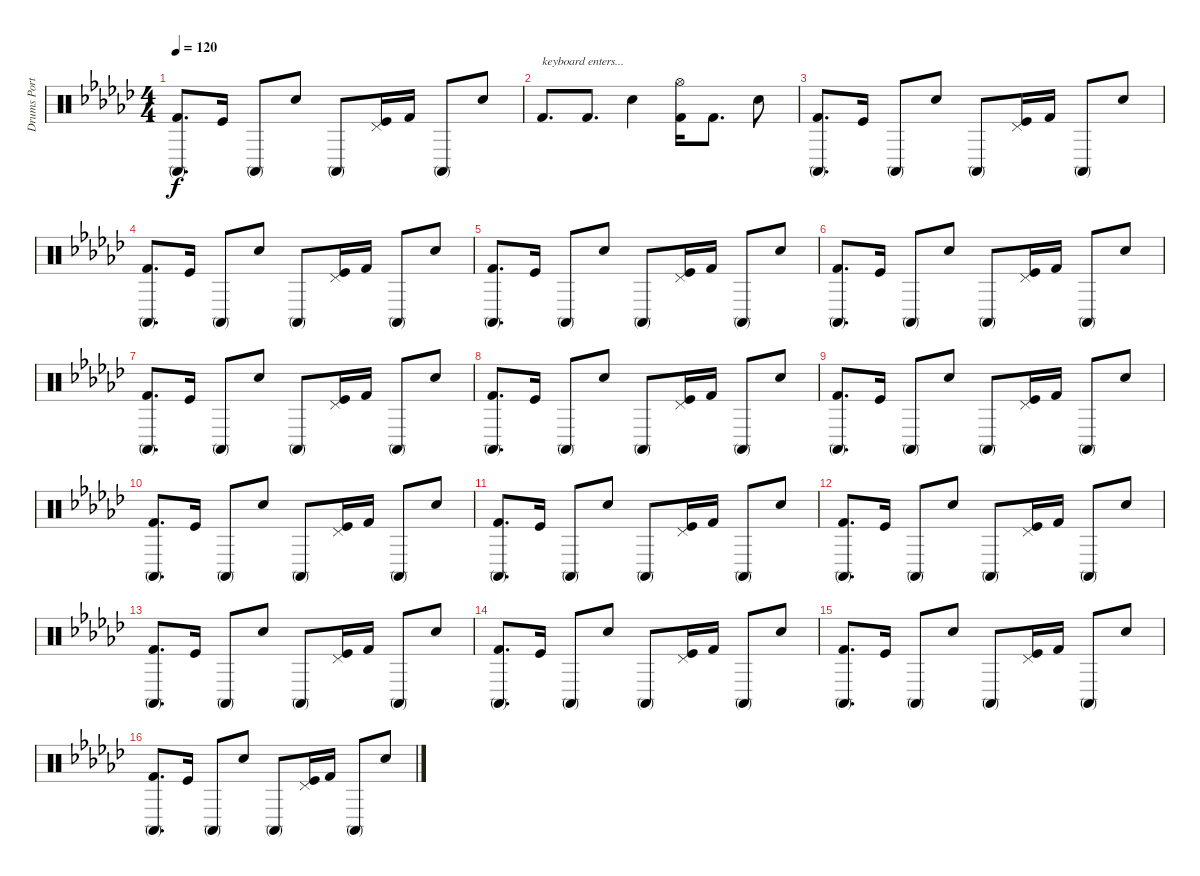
\track ("Drums Portnoy" "Drums Port") {instrument percussion}
\staff {score}
\articulation defaults
\ts (4 4)
\tempo 120
\clef neutral
\ks gb
("Conga high (mute)" "Kick (hit) 2").8{d dy f} "Kick (hit)".16 "Conga high (mute)".8 "Snare (hit) 2".8 "Conga high (mute)".8 ("Pedal Hi-Hat (hit)" "Kick (hit)").16 "Kick (hit) 2".16 "Conga high (mute)".8 "Snare (hit) 2".8 |
"Kick (hit) 2".8{d txt "keyboard enters..."} "Kick (hit) 2".8{d} "Snare (hit) 2".4 ("Hi-Hat (open)" "Kick (hit) 2").16 "Kick (hit) 2".8{d} "Snare (hit) 2".8 |
("Conga high (mute)" "Kick (hit) 2").8{d} "Kick (hit)".16 "Conga high (mute)".8 "Snare (hit) 2".8 "Conga high (mute)".8 ("Pedal Hi-Hat (hit)" "Kick (hit)").16 "Kick (hit) 2".16 "Conga high (mute)".8 "Snare (hit) 2".8 |
("Conga high (mute)" "Kick (hit) 2").8{d} "Kick (hit)".16 "Conga high (mute)".8 "Snare (hit) 2".8 "Conga high (mute)".8 ("Pedal Hi-Hat (hit)" "Kick (hit)").16 "Kick (hit) 2".16 "Conga high (mute)".8 "Snare (hit) 2".8 |
("Conga high (mute)" "Kick (hit) 2").8{d} "Kick (hit)".16 "Conga high (mute)".8 "Snare (hit) 2".8 "Conga high (mute)".8 ("Pedal Hi-Hat (hit)" "Kick (hit)").16 "Kick (hit) 2".16 "Conga high (mute)".8 "Snare (hit) 2".8 |
("Conga high (mute)" "Kick (hit) 2").8{d} "Kick (hit)".16 "Conga high (mute)".8 "Snare (hit) 2".8 "Conga high (mute)".8 ("Pedal Hi-Hat (hit)" "Kick (hit)").16 "Kick (hit) 2".16 "Conga high (mute)".8 "Snare (hit) 2".8 |
("Conga high (mute)" "Kick (hit) 2").8{d} "Kick (hit)".16 "Conga high (mute)".8 "Snare (hit) 2".8 "Conga high (mute)".8 ("Pedal Hi-Hat (hit)" "Kick (hit)").16 "Kick (hit) 2".16 "Conga high (mute)".8 "Snare (hit) 2".8 |
("Conga high (mute)" "Kick (hit) 2").8{d} "Kick (hit)".16 "Conga high (mute)".8 "Snare (hit) 2".8 "Conga high (mute)".8 ("Pedal Hi-Hat (hit)" "Kick (hit)").16 "Kick (hit) 2".16 "Conga high (mute)".8 "Snare (hit) 2".8 |
("Conga high (mute)" "Kick (hit) 2").8{d} "Kick (hit)".16 "Conga high (mute)".8 "Snare (hit) 2".8 "Conga high (mute)".8 ("Pedal Hi-Hat (hit)" "Kick (hit)").16 "Kick (hit) 2".16 "Conga high (mute)".8 "Snare (hit) 2".8 |
("Conga high (mute)" "Kick (hit) 2").8{d} "Kick (hit)".16 "Conga high (mute)".8 "Snare (hit) 2".8 "Conga high (mute)".8 ("Pedal Hi-Hat (hit)" "Kick (hit)").16 "Kick (hit) 2".16 "Conga high (mute)".8 "Snare (hit) 2".8 |
("Conga high (mute)" "Kick (hit) 2").8{d} "Kick (hit)".16 "Conga high (mute)".8 "Snare (hit) 2".8 "Conga high (mute)".8 ("Pedal Hi-Hat (hit)" "Kick (hit)").16 "Kick (hit) 2".16 "Conga high (mute)".8 "Snare (hit) 2".8 |
("Conga high (mute)" "Kick (hit) 2").8{d} "Kick (hit)".16 "Conga high (mute)".8 "Snare (hit) 2".8 "Conga high (mute)".8 ("Pedal Hi-Hat (hit)" "Kick (hit)").16 "Kick (hit) 2".16 "Conga high (mute)".8 "Snare (hit) 2".8 |
("Conga high (mute)" "Kick (hit) 2").8{d} "Kick (hit)".16 "Conga high (mute)".8 "Snare (hit) 2".8 "Conga high (mute)".8 ("Pedal Hi-Hat (hit)" "Kick (hit)").16 "Kick (hit) 2".16 "Conga high (mute)".8 "Snare (hit) 2".8 |
("Conga high (mute)" "Kick (hit) 2").8{d} "Kick (hit)".16 "Conga high (mute)".8 "Snare (hit) 2".8 "Conga high (mute)".8 ("Pedal Hi-Hat (hit)" "Kick (hit)").16 "Kick (hit) 2".16 "Conga high (mute)".8 "Snare (hit) 2".8 |
("Conga high (mute)" "Kick (hit) 2").8{d} "Kick (hit)".16 "Conga high (mute)".8 "Snare (hit) 2".8 "Conga high (mute)".8 ("Pedal Hi-Hat (hit)" "Kick (hit)").16 "Kick (hit) 2".16 "Conga high (mute)".8 "Snare (hit) 2".8 |
("Conga high (mute)" "Kick (hit) 2").8{d} "Kick (hit)".16 "Conga high (mute)".8 "Snare (hit) 2".8 "Conga high (mute)".8 ("Pedal Hi-Hat (hit)" "Kick (hit)").16 "Kick (hit) 2".16 "Conga high (mute)".8 "Snare (hit) 2".8
